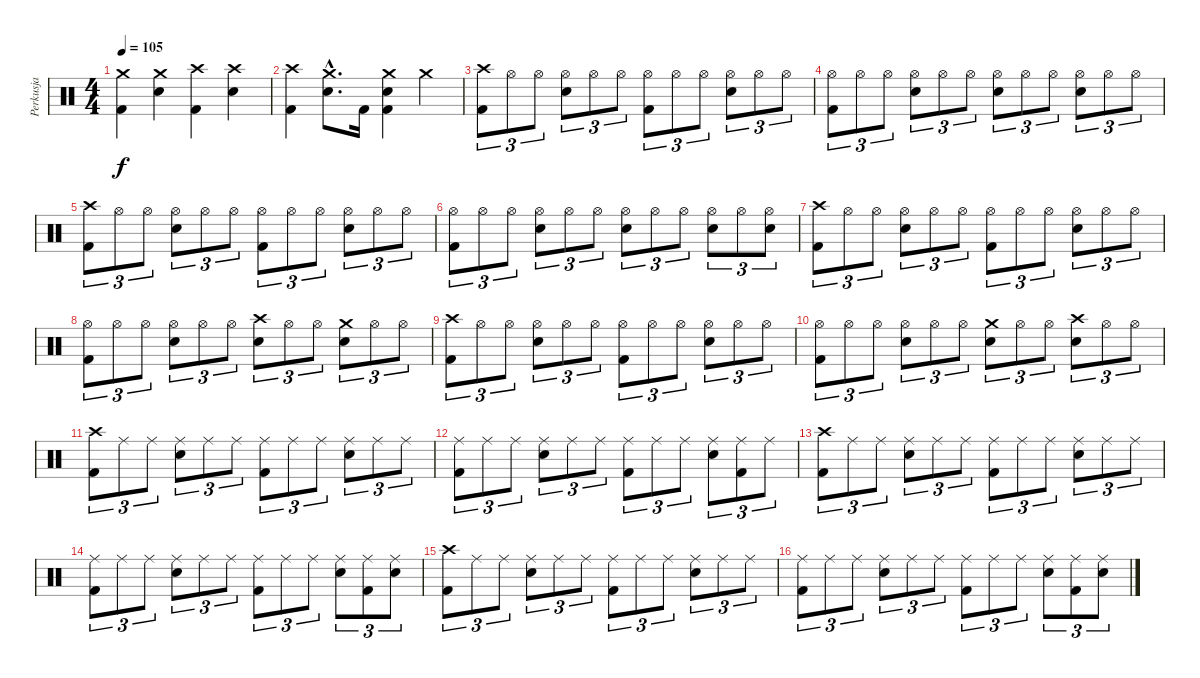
\track ("Perkusja" "Perkusja") {instrument percussion}
\staff {score}
\articulation defaults
\ts (4 4)
\tempo 105
\clef neutral
\ks c
("Crash medium (hit)" "Kick (hit) 2").4{dy f} ("Crash medium (hit)" "Snare (hit) 2").4 ("Crash high (hit)" "Kick (hit) 2").4 ("Crash high (hit)" "Snare (hit) 2").4 |
("Crash high (hit)" "Kick (hit) 2").4 ("Crash medium (hit)"{hac} "Snare (hit) 2"{hac}).8{d} "Kick (hit) 2".16 ("Crash medium (hit)" "Snare (hit) 2" "Kick (hit) 2").4 "Crash medium (hit)".4 |
("Crash high (hit)" "Kick (hit) 2").8{tu (3 2)} "Hi-Hat (open)".8{tu (3 2)} "Hi-Hat (open)".8{tu (3 2)} ("Hi-Hat (open)" "Snare (hit) 2").8{tu (3 2)} "Hi-Hat (open)".8{tu (3 2)} "Hi-Hat (open)".8{tu (3 2)} ("Hi-Hat (open)" "Kick (hit) 2").8{tu (3 2)} "Hi-Hat (open)".8{tu (3 2)} "Hi-Hat (open)".8{tu (3 2)} ("Hi-Hat (open)" "Snare (hit) 2").8{tu (3 2)} "Hi-Hat (open)".8{tu (3 2)} "Hi-Hat (open)".8{tu (3 2)} |
("Hi-Hat (open)" "Kick (hit) 2").8{tu (3 2)} "Hi-Hat (open)".8{tu (3 2)} "Hi-Hat (open)".8{tu (3 2)} ("Hi-Hat (open)" "Snare (hit) 2").8{tu (3 2)} "Hi-Hat (open)".8{tu (3 2)} "Hi-Hat (open)".8{tu (3 2)} ("Hi-Hat (open)" "Snare (hit) 2").8{tu (3 2)} "Hi-Hat (open)".8{tu (3 2)} "Hi-Hat (open)".8{tu (3 2)} ("Hi-Hat (open)" "Snare (hit) 2").8{tu (3 2)} "Hi-Hat (open)".8{tu (3 2)} "Hi-Hat (open)".8{tu (3 2)} |
("Crash high (hit)" "Kick (hit) 2").8{tu (3 2)} "Hi-Hat (open)".8{tu (3 2)} "Hi-Hat (open)".8{tu (3 2)} ("Hi-Hat (open)" "Snare (hit) 2").8{tu (3 2)} "Hi-Hat (open)".8{tu (3 2)} "Hi-Hat (open)".8{tu (3 2)} ("Hi-Hat (open)" "Kick (hit) 2").8{tu (3 2)} "Hi-Hat (open)".8{tu (3 2)} "Hi-Hat (open)".8{tu (3 2)} ("Hi-Hat (open)" "Snare (hit) 2").8{tu (3 2)} "Hi-Hat (open)".8{tu (3 2)} "Hi-Hat (open)".8{tu (3 2)} |
("Hi-Hat (open)" "Kick (hit) 2").8{tu (3 2)} "Hi-Hat (open)".8{tu (3 2)} "Hi-Hat (open)".8{tu (3 2)} ("Hi-Hat (open)" "Snare (hit) 2").8{tu (3 2)} "Hi-Hat (open)".8{tu (3 2)} "Hi-Hat (open)".8{tu (3 2)} ("Hi-Hat (open)" "Snare (hit) 2").8{tu (3 2)} "Hi-Hat (open)".8{tu (3 2)} "Hi-Hat (open)".8{tu (3 2)} ("Hi-Hat (open)" "Snare (hit) 2").8{tu (3 2)} "Hi-Hat (open)".8{tu (3 2)} ("Hi-Hat (open)" "Snare (hit) 2").8{tu (3 2)} |
("Crash high (hit)" "Kick (hit) 2").8{tu (3 2)} "Hi-Hat (open)".8{tu (3 2)} "Hi-Hat (open)".8{tu (3 2)} ("Hi-Hat (open)" "Snare (hit) 2").8{tu (3 2)} "Hi-Hat (open)".8{tu (3 2)} "Hi-Hat (open)".8{tu (3 2)} ("Hi-Hat (open)" "Kick (hit) 2").8{tu (3 2)} "Hi-Hat (open)".8{tu (3 2)} "Hi-Hat (open)".8{tu (3 2)} ("Hi-Hat (open)" "Snare (hit) 2").8{tu (3 2)} "Hi-Hat (open)".8{tu (3 2)} "Hi-Hat (open)".8{tu (3 2)} |
("Hi-Hat (open)" "Kick (hit) 2").8{tu (3 2)} "Hi-Hat (open)".8{tu (3 2)} "Hi-Hat (open)".8{tu (3 2)} ("Hi-Hat (open)" "Snare (hit) 2").8{tu (3 2)} "Hi-Hat (open)".8{tu (3 2)} "Hi-Hat (open)".8{tu (3 2)} ("Crash high (hit)" "Snare (hit) 2").8{tu (3 2)} "Hi-Hat (open)".8{tu (3 2)} "Hi-Hat (open)".8{tu (3 2)} ("Crash medium (hit)" "Snare (hit) 2").8{tu (3 2)} "Hi-Hat (open)".8{tu (3 2)} "Hi-Hat (open)".8{tu (3 2)} |
("Crash high (hit)" "Kick (hit) 2").8{tu (3 2)} "Hi-Hat (open)".8{tu (3 2)} "Hi-Hat (open)".8{tu (3 2)} ("Hi-Hat (open)" "Snare (hit) 2").8{tu (3 2)} "Hi-Hat (open)".8{tu (3 2)} "Hi-Hat (open)".8{tu (3 2)} ("Hi-Hat (open)" "Kick (hit) 2").8{tu (3 2)} "Hi-Hat (open)".8{tu (3 2)} "Hi-Hat (open)".8{tu (3 2)} ("Hi-Hat (open)" "Snare (hit) 2").8{tu (3 2)} "Hi-Hat (open)".8{tu (3 2)} "Hi-Hat (open)".8{tu (3 2)} |
("Hi-Hat (open)" "Kick (hit) 2").8{tu (3 2)} "Hi-Hat (open)".8{tu (3 2)} "Hi-Hat (open)".8{tu (3 2)} ("Hi-Hat (open)" "Snare (hit) 2").8{tu (3 2)} "Hi-Hat (open)".8{tu (3 2)} "Hi-Hat (open)".8{tu (3 2)} ("Crash medium (hit)" "Snare (hit) 2").8{tu (3 2)} "Hi-Hat (open)".8{tu (3 2)} "Hi-Hat (open)".8{tu (3 2)} ("Crash high (hit)" "Snare (hit) 2").8{tu (3 2)} "Hi-Hat (open)".8{tu (3 2)} "Hi-Hat (open)".8{tu (3 2)} |
("Crash high (hit)" "Kick (hit) 2").8{tu (3 2)} "Ride (middle)".8{tu (3 2)} "Ride (middle)".8{tu (3 2)} ("Ride (middle)" "Snare (hit) 2").8{tu (3 2)} "Ride (middle)".8{tu (3 2)} "Ride (middle)".8{tu (3 2)} ("Ride (middle)" "Kick (hit) 2").8{tu (3 2)} "Ride (middle)".8{tu (3 2)} "Ride (middle)".8{tu (3 2)} ("Ride (middle)" "Snare (hit) 2").8{tu (3 2)} "Ride (middle)".8{tu (3 2)} "Ride (middle)".8{tu (3 2)} |
("Ride (middle)" "Kick (hit) 2").8{tu (3 2)} "Ride (middle)".8{tu (3 2)} "Ride (middle)".8{tu (3 2)} ("Ride (middle)" "Snare (hit) 2").8{tu (3 2)} "Ride (middle)".8{tu (3 2)} "Ride (middle)".8{tu (3 2)} ("Ride (middle)" "Kick (hit) 2").8{tu (3 2)} "Ride (middle)".8{tu (3 2)} "Ride (middle)".8{tu (3 2)} ("Ride (middle)" "Snare (hit) 2").8{tu (3 2)} ("Ride (middle)" "Kick (hit) 2").8{tu (3 2)} "Ride (middle)".8{tu (3 2)} |
("Crash high (hit)" "Kick (hit) 2").8{tu (3 2)} "Ride (middle)".8{tu (3 2)} "Ride (middle)".8{tu (3 2)} ("Ride (middle)" "Snare (hit) 2").8{tu (3 2)} "Ride (middle)".8{tu (3 2)} "Ride (middle)".8{tu (3 2)} ("Ride (middle)" "Kick (hit) 2").8{tu (3 2)} "Ride (middle)".8{tu (3 2)} "Ride (middle)".8{tu (3 2)} ("Ride (middle)" "Snare (hit) 2").8{tu (3 2)} "Ride (middle)".8{tu (3 2)} "Ride (middle)".8{tu (3 2)} |
("Ride (middle)" "Kick (hit) 2").8{tu (3 2)} "Ride (middle)".8{tu (3 2)} "Ride (middle)".8{tu (3 2)} ("Ride (middle)" "Snare (hit) 2").8{tu (3 2)} "Ride (middle)".8{tu (3 2)} "Ride (middle)".8{tu (3 2)} ("Ride (middle)" "Kick (hit) 2").8{tu (3 2)} "Ride (middle)".8{tu (3 2)} "Ride (middle)".8{tu (3 2)} ("Ride (middle)" "Snare (hit) 2").8{tu (3 2)} ("Ride (middle)" "Kick (hit) 2").8{tu (3 2)} ("Ride (middle)" "Snare (hit) 2").8{tu (3 2)} |
("Crash high (hit)" "Kick (hit) 2").8{tu (3 2)} "Ride (middle)".8{tu (3 2)} "Ride (middle)".8{tu (3 2)} ("Ride (middle)" "Snare (hit) 2").8{tu (3 2)} "Ride (middle)".8{tu (3 2)} "Ride (middle)".8{tu (3 2)} ("Ride (middle)" "Kick (hit) 2").8{tu (3 2)} "Ride (middle)".8{tu (3 2)} "Ride (middle)".8{tu (3 2)} ("Ride (middle)" "Snare (hit) 2").8{tu (3 2)} "Ride (middle)".8{tu (3 2)} "Ride (middle)".8{tu (3 2)} |
("Ride (middle)" "Kick (hit) 2").8{tu (3 2)} "Ride (middle)".8{tu (3 2)} "Ride (middle)".8{tu (3 2)} ("Ride (middle)" "Snare (hit) 2").8{tu (3 2)} "Ride (middle)".8{tu (3 2)} "Ride (middle)".8{tu (3 2)} ("Ride (middle)" "Kick (hit) 2").8{tu (3 2)} "Ride (middle)".8{tu (3 2)} "Ride (middle)".8{tu (3 2)} ("Ride (middle)" "Snare (hit) 2").8{tu (3 2)} ("Ride (middle)" "Kick (hit) 2").8{tu (3 2)} ("Ride (middle)" "Snare (hit) 2").8{tu (3 2)}
